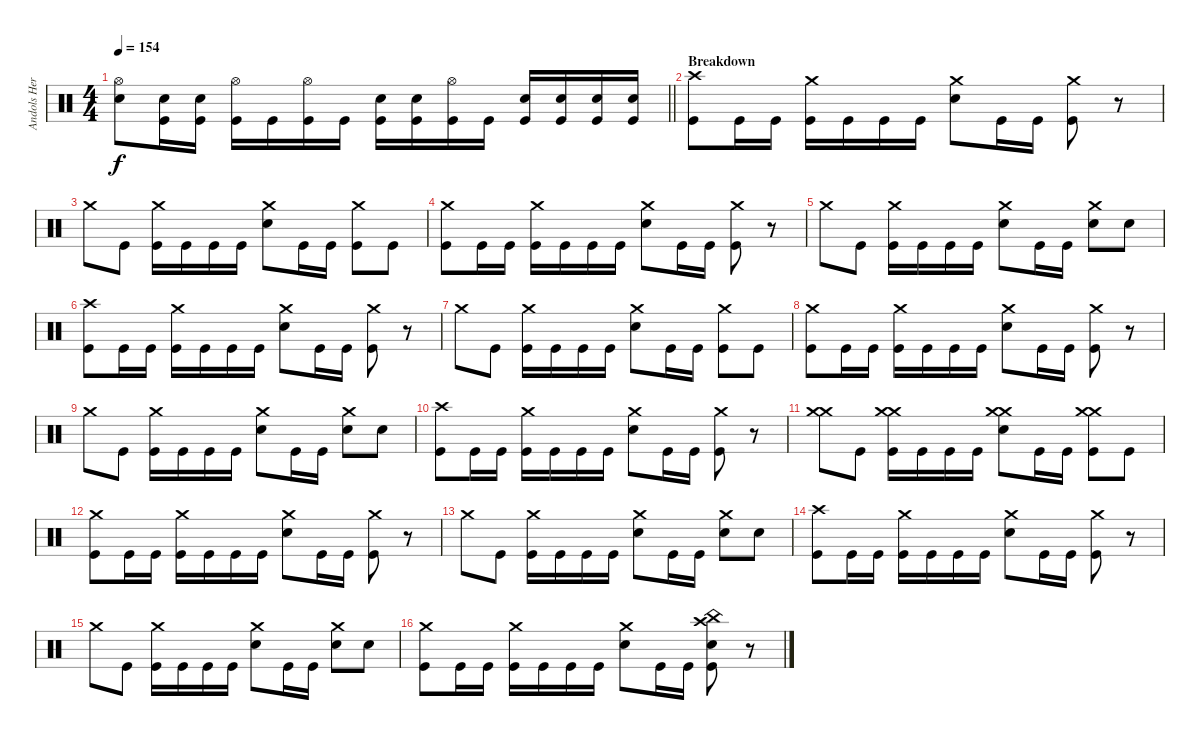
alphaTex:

\track ("Andols Herrick" "Andols Her") {instrument percussion}
\staff
\articulation defaults
\ts (4 4)
\tempo 154
\clef neutral
\barLineRight lightlight
\ks c
("Hi-Hat (open)" "Electric Snare (hit)").8{dy f} ("Electric Snare (hit)" "Kick (hit)").16 ("Electric Snare (hit)" "Kick (hit)").16 ("Hi-Hat (open)" "Kick (hit)").16 "Kick (hit)".16 ("Hi-Hat (open)" "Kick (hit)").16 "Kick (hit)".16 ("Electric Snare (hit)" "Kick (hit)").16 ("Electric Snare (hit)" "Kick (hit)").16 ("Hi-Hat (open)" "Kick (hit)").16 "Kick (hit)".16 ("Electric Snare (hit)" "Kick (hit)").16 ("Electric Snare (hit)" "Kick (hit)").16 ("Electric Snare (hit)" "Kick (hit)").16 ("Electric Snare (hit)" "Kick (hit)").16 |
\section ("" "Breakdown")
("Crash high (hit)" "Kick (hit)").8 "Kick (hit)".16 "Kick (hit)".16 ("Crash medium (hit)" "Kick (hit)").16 "Kick (hit)".16 "Kick (hit)".16 "Kick (hit)".16 ("Crash medium (hit)" "Electric Snare (hit)").8 "Kick (hit)".16 "Kick (hit)".16 ("Crash medium (hit)" "Kick (hit)").8 r.8 |
"Crash medium (hit)".8 "Kick (hit)".8 ("Crash medium (hit)" "Kick (hit)").16 "Kick (hit)".16 "Kick (hit)".16 "Kick (hit)".16 ("Crash medium (hit)" "Electric Snare (hit)").8 "Kick (hit)".16 "Kick (hit)".16 ("Crash medium (hit)" "Kick (hit)").8 "Kick (hit)".8 |
("Crash medium (hit)" "Kick (hit)").8 "Kick (hit)".16 "Kick (hit)".16 ("Crash medium (hit)" "Kick (hit)").16 "Kick (hit)".16 "Kick (hit)".16 "Kick (hit)".16 ("Crash medium (hit)" "Electric Snare (hit)").8 "Kick (hit)".16 "Kick (hit)".16 ("Crash medium (hit)" "Kick (hit)").8 r.8 |
"Crash medium (hit)".8 "Kick (hit)".8 ("Crash medium (hit)" "Kick (hit)").16 "Kick (hit)".16 "Kick (hit)".16 "Kick (hit)".16 ("Crash medium (hit)" "Electric Snare (hit)").8 "Kick (hit)".16 "Kick (hit)".16 ("Crash medium (hit)" "Electric Snare (hit)").8 "Electric Snare (hit)".8 |
("Crash high (hit)" "Kick (hit)").8 "Kick (hit)".16 "Kick (hit)".16 ("Crash medium (hit)" "Kick (hit)").16 "Kick (hit)".16 "Kick (hit)".16 "Kick (hit)".16 ("Crash medium (hit)" "Electric Snare (hit)").8 "Kick (hit)".16 "Kick (hit)".16 ("Crash medium (hit)" "Kick (hit)").8 r.8 |
"Crash medium (hit)".8 "Kick (hit)".8 ("Crash medium (hit)" "Kick (hit)").16 "Kick (hit)".16 "Kick (hit)".16 "Kick (hit)".16 ("Crash medium (hit)" "Electric Snare (hit)").8 "Kick (hit)".16 "Kick (hit)".16 ("Crash medium (hit)" "Kick (hit)").8 "Kick (hit)".8 |
("Crash medium (hit)" "Kick (hit)").8 "Kick (hit)".16 "Kick (hit)".16 ("Crash medium (hit)" "Kick (hit)").16 "Kick (hit)".16 "Kick (hit)".16 "Kick (hit)".16 ("Crash medium (hit)" "Electric Snare (hit)").8 "Kick (hit)".16 "Kick (hit)".16 ("Crash medium (hit)" "Kick (hit)").8 r.8 |
"Crash medium (hit)".8 "Kick (hit)".8 ("Crash medium (hit)" "Kick (hit)").16 "Kick (hit)".16 "Kick (hit)".16 "Kick (hit)".16 ("Crash medium (hit)" "Electric Snare (hit)").8 "Kick (hit)".16 "Kick (hit)".16 ("Crash medium (hit)" "Electric Snare (hit)").8 "Electric Snare (hit)".8 |
("Crash high (hit)" "Kick (hit)").8 "Kick (hit)".16 "Kick (hit)".16 ("Crash medium (hit)" "Kick (hit)").16 "Kick (hit)".16 "Kick (hit)".16 "Kick (hit)".16 ("Crash medium (hit)" "Electric Snare (hit)").8 "Kick (hit)".16 "Kick (hit)".16 ("Crash medium (hit)" "Kick (hit)").8 r.8 |
("Crash medium (hit)" "Crash medium (hit)").8 "Kick (hit)".8 ("Crash medium (hit)" "Crash medium (hit)" "Kick (hit)").16 "Kick (hit)".16 "Kick (hit)".16 "Kick (hit)".16 ("Crash medium (hit)" "Crash medium (hit)" "Electric Snare (hit)").8 "Kick (hit)".16 "Kick (hit)".16 ("Crash medium (hit)" "Crash medium (hit)" "Kick (hit)").8 "Kick (hit)".8 |
("Crash medium (hit)" "Kick (hit)").8 "Kick (hit)".16 "Kick (hit)".16 ("Crash medium (hit)" "Kick (hit)").16 "Kick (hit)".16 "Kick (hit)".16 "Kick (hit)".16 ("Crash medium (hit)" "Electric Snare (hit)").8 "Kick (hit)".16 "Kick (hit)".16 ("Crash medium (hit)" "Kick (hit)").8 r.8 |
"Crash medium (hit)".8 "Kick (hit)".8 ("Crash medium (hit)" "Kick (hit)").16 "Kick (hit)".16 "Kick (hit)".16 "Kick (hit)".16 ("Crash medium (hit)" "Electric Snare (hit)").8 "Kick (hit)".16 "Kick (hit)".16 ("Crash medium (hit)" "Electric Snare (hit)").8 "Electric Snare (hit)".8 |
("Crash high (hit)" "Kick (hit)").8 "Kick (hit)".16 "Kick (hit)".16 ("Crash medium (hit)" "Kick (hit)").16 "Kick (hit)".16 "Kick (hit)".16 "Kick (hit)".16 ("Crash medium (hit)" "Electric Snare (hit)").8 "Kick (hit)".16 "Kick (hit)".16 ("Crash medium (hit)" "Kick (hit)").8 r.8 |
"Crash medium (hit)".8 "Kick (hit)".8 ("Crash medium (hit)" "Kick (hit)").16 "Kick (hit)".16 "Kick (hit)".16 "Kick (hit)".16 ("Crash medium (hit)" "Electric Snare (hit)").8 "Kick (hit)".16 "Kick (hit)".16 ("Crash medium (hit)" "Electric Snare (hit)").8 "Electric Snare (hit)".8 |
("Crash medium (hit)" "Kick (hit)").8 "Kick (hit)".16 "Kick (hit)".16 ("Crash medium (hit)" "Kick (hit)").16 "Kick (hit)".16 "Kick (hit)".16 "Kick (hit)".16 ("Crash medium (hit)" "Electric Snare (hit)").8 "Kick (hit)".16 "Kick (hit)".16 ("China (hit)" "Crash high (hit)" "Electric Snare (hit)" "Kick (hit)").8 r.8
